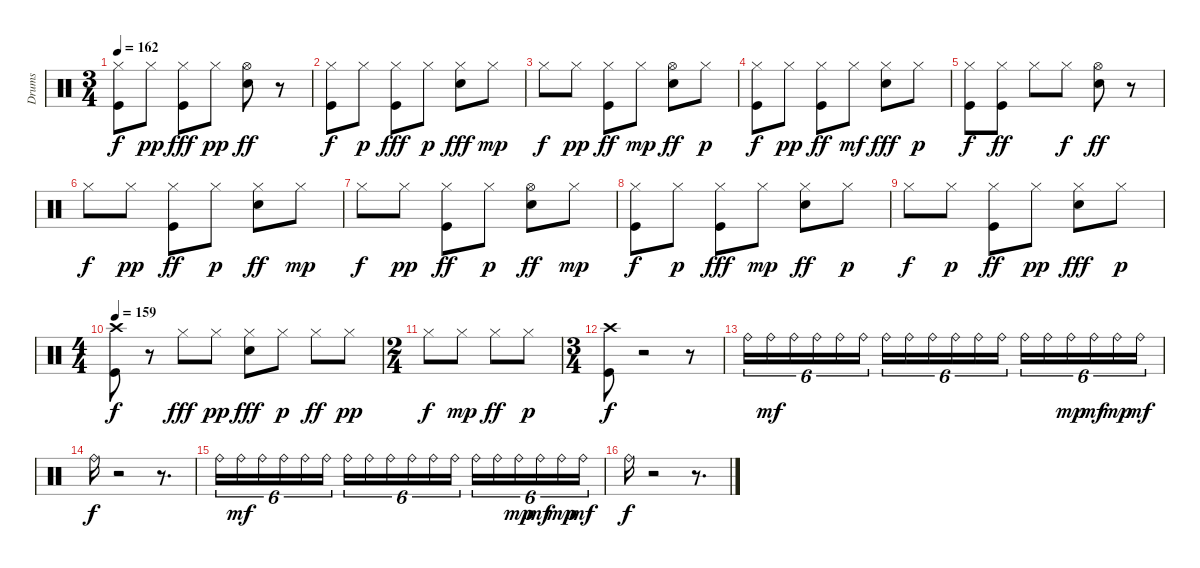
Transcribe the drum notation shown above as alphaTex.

\track ("Drums" "Drums") {instrument percussion}
\staff {score}
\articulation defaults
\ts (3 4)
\tempo 162
\clef neutral
\ks c
("Kick (hit)" "Hi-Hat (closed)").8{dy f} "Hi-Hat (closed)".8{dy pp} ("Kick (hit)" "Hi-Hat (closed)").8{dy fff} "Hi-Hat (closed)".8{dy pp} ("Electric Snare (hit)" "Hi-Hat (open)").8{dy ff} r.8 |
("Kick (hit)" "Hi-Hat (closed)").8{dy f} "Hi-Hat (closed)".8{dy p} ("Kick (hit)" "Hi-Hat (closed)").8{dy fff} "Hi-Hat (closed)".8{dy p} ("Electric Snare (hit)" "Hi-Hat (closed)").8{dy fff} "Hi-Hat (closed)".8{dy mp} |
"Hi-Hat (closed)".8{dy f} "Hi-Hat (closed)".8{dy pp} ("Kick (hit)" "Hi-Hat (closed)").8{dy ff} "Hi-Hat (closed)".8{dy mp} ("Electric Snare (hit)" "Hi-Hat (open)").8{dy ff} "Hi-Hat (closed)".8{dy p} |
("Kick (hit)" "Hi-Hat (closed)").8{dy f} "Hi-Hat (closed)".8{dy pp} ("Kick (hit)" "Hi-Hat (closed)").8{dy ff} "Hi-Hat (closed)".8{dy mf} ("Electric Snare (hit)" "Hi-Hat (closed)").8{dy fff} "Hi-Hat (closed)".8{dy p} |
("Kick (hit)" "Hi-Hat (closed)").8{dy f} ("Kick (hit)" "Hi-Hat (closed)").8{dy ff} "Hi-Hat (closed)".8 "Hi-Hat (closed)".8{dy f} ("Electric Snare (hit)" "Hi-Hat (open)").8{dy ff} r.8 |
"Hi-Hat (closed)".8{dy f} "Hi-Hat (closed)".8{dy pp} ("Kick (hit)" "Hi-Hat (closed)").8{dy ff} "Hi-Hat (closed)".8{dy p} ("Electric Snare (hit)" "Hi-Hat (closed)").8{dy ff} "Hi-Hat (closed)".8{dy mp} |
"Hi-Hat (closed)".8{dy f} "Hi-Hat (closed)".8{dy pp} ("Kick (hit)" "Hi-Hat (closed)").8{dy ff} "Hi-Hat (closed)".8{dy p} ("Electric Snare (hit)" "Hi-Hat (open)").8{dy ff} "Hi-Hat (closed)".8{dy mp} |
("Kick (hit)" "Hi-Hat (closed)").8{dy f} "Hi-Hat (closed)".8{dy p} ("Kick (hit)" "Hi-Hat (closed)").8{dy fff} "Hi-Hat (closed)".8{dy mp} ("Electric Snare (hit)" "Hi-Hat (closed)").8{dy ff} "Hi-Hat (closed)".8{dy p} |
"Hi-Hat (closed)".8{dy f} "Hi-Hat (closed)".8{dy p} ("Kick (hit)" "Hi-Hat (closed)").8{dy ff} "Hi-Hat (closed)".8{dy pp} ("Electric Snare (hit)" "Hi-Hat (closed)").8{dy fff} "Hi-Hat (closed)".8{dy p} |
\ts (4 4)
\tempo 159
("Kick (hit)" "Crash high (hit)").8{dy f} r.8 "Hi-Hat (closed)".8{dy fff} "Hi-Hat (closed)".8{dy pp} ("Electric Snare (hit)" "Hi-Hat (closed)").8{dy fff} "Hi-Hat (closed)".8{dy p} "Hi-Hat (closed)".8{dy ff} "Hi-Hat (closed)".8{dy pp} |
\ts (2 4)
"Hi-Hat (closed)".8{dy f} "Hi-Hat (closed)".8{dy mp} "Hi-Hat (closed)".8{dy ff} "Hi-Hat (closed)".8{dy p} |
\ts (3 4)
("Kick (hit)" "Crash high (hit)").8{dy f} r.2 r.8 |
"Ride (bell)".16{tu (6 4)} "Ride (bell)".16{tu (6 4) dy mf} "Ride (bell)".16{tu (6 4)} "Ride (bell)".16{tu (6 4)} "Ride (bell)".16{tu (6 4)} "Ride (bell)".16{tu (6 4)} "Ride (bell)".16{tu (6 4)} "Ride (bell)".16{tu (6 4)} "Ride (bell)".16{tu (6 4)} "Ride (bell)".16{tu (6 4)} "Ride (bell)".16{tu (6 4)} "Ride (bell)".16{tu (6 4)} "Ride (bell)".16{tu (6 4)} "Ride (bell)".16{tu (6 4)} "Ride (bell)".16{tu (6 4) dy mp} "Ride (bell)".16{tu (6 4) dy mf} "Ride (bell)".16{tu (6 4) dy mp} "Ride (bell)".16{tu (6 4) dy mf} |
"Ride (bell)".16{dy f} r.2 r.8{d} |
"Ride (bell)".16{tu (6 4)} "Ride (bell)".16{tu (6 4) dy mf} "Ride (bell)".16{tu (6 4)} "Ride (bell)".16{tu (6 4)} "Ride (bell)".16{tu (6 4)} "Ride (bell)".16{tu (6 4)} "Ride (bell)".16{tu (6 4)} "Ride (bell)".16{tu (6 4)} "Ride (bell)".16{tu (6 4)} "Ride (bell)".16{tu (6 4)} "Ride (bell)".16{tu (6 4)} "Ride (bell)".16{tu (6 4)} "Ride (bell)".16{tu (6 4)} "Ride (bell)".16{tu (6 4)} "Ride (bell)".16{tu (6 4) dy mp} "Ride (bell)".16{tu (6 4) dy mf} "Ride (bell)".16{tu (6 4) dy mp} "Ride (bell)".16{tu (6 4) dy mf} |
"Ride (bell)".16{dy f} r.2 r.8{d}
